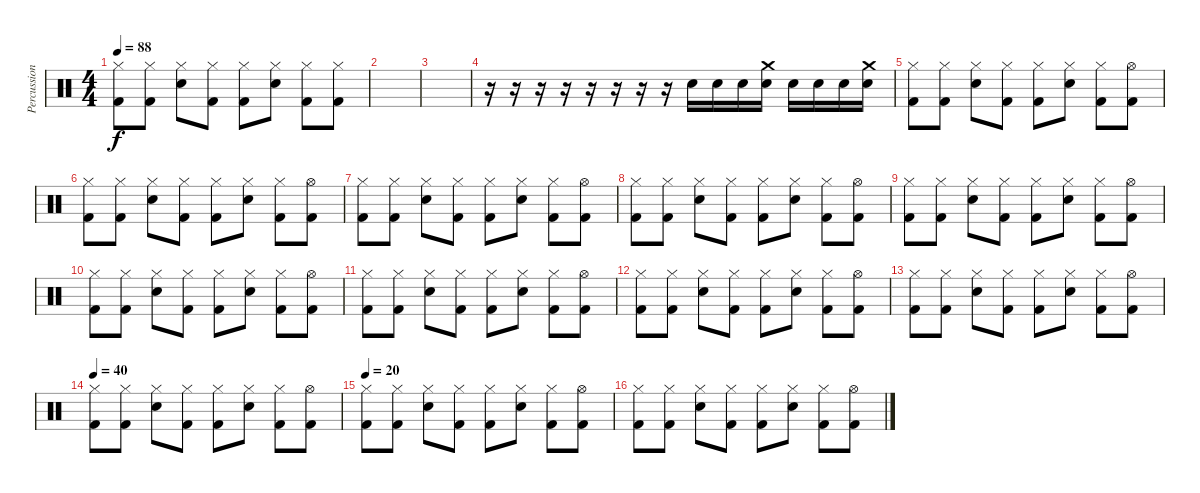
\track ("Percussion" "Percussion") {instrument percussion}
\staff {score}
\articulation defaults
\ts (4 4)
\tempo 88
\clef neutral
\ks c
("Hi-Hat (closed)" "Kick (hit) 2").8{dy f} ("Hi-Hat (closed)" "Kick (hit) 2").8 ("Hi-Hat (closed)" "Snare (hit) 2").8 ("Hi-Hat (closed)" "Kick (hit) 2").8 ("Hi-Hat (closed)" "Kick (hit) 2").8 ("Hi-Hat (closed)" "Snare (hit) 2").8 ("Hi-Hat (closed)" "Kick (hit) 2").8 ("Hi-Hat (closed)" "Kick (hit) 2").8 |
|
|
r.16 r.16 r.16 r.16 r.16 r.16 r.16 r.16 "Snare (hit) 2".16 "Snare (hit) 2".16 "Snare (hit) 2".16 ("Snare (hit) 2" "Crash medium (hit)").16 "Snare (hit) 2".16 "Snare (hit) 2".16 "Snare (hit) 2".16 ("Snare (hit) 2" "Crash medium (hit)").16 |
("Hi-Hat (closed)" "Kick (hit) 2").8 ("Hi-Hat (closed)" "Kick (hit) 2").8 ("Hi-Hat (closed)" "Snare (hit) 2").8 ("Hi-Hat (closed)" "Kick (hit) 2").8 ("Hi-Hat (closed)" "Kick (hit) 2").8 ("Hi-Hat (closed)" "Snare (hit) 2").8 ("Hi-Hat (closed)" "Kick (hit) 2").8 ("Hi-Hat (open)" "Kick (hit) 2").8 |
("Hi-Hat (closed)" "Kick (hit) 2").8 ("Hi-Hat (closed)" "Kick (hit) 2").8 ("Hi-Hat (closed)" "Snare (hit) 2").8 ("Hi-Hat (closed)" "Kick (hit) 2").8 ("Hi-Hat (closed)" "Kick (hit) 2").8 ("Hi-Hat (closed)" "Snare (hit) 2").8 ("Hi-Hat (closed)" "Kick (hit) 2").8 ("Hi-Hat (open)" "Kick (hit) 2").8 |
("Hi-Hat (closed)" "Kick (hit) 2").8 ("Hi-Hat (closed)" "Kick (hit) 2").8 ("Hi-Hat (closed)" "Snare (hit) 2").8 ("Hi-Hat (closed)" "Kick (hit) 2").8 ("Hi-Hat (closed)" "Kick (hit) 2").8 ("Hi-Hat (closed)" "Snare (hit) 2").8 ("Hi-Hat (closed)" "Kick (hit) 2").8 ("Hi-Hat (open)" "Kick (hit) 2").8 |
("Hi-Hat (closed)" "Kick (hit) 2").8 ("Hi-Hat (closed)" "Kick (hit) 2").8 ("Hi-Hat (closed)" "Snare (hit) 2").8 ("Hi-Hat (closed)" "Kick (hit) 2").8 ("Hi-Hat (closed)" "Kick (hit) 2").8 ("Hi-Hat (closed)" "Snare (hit) 2").8 ("Hi-Hat (closed)" "Kick (hit) 2").8 ("Hi-Hat (open)" "Kick (hit) 2").8 |
("Hi-Hat (closed)" "Kick (hit) 2").8 ("Hi-Hat (closed)" "Kick (hit) 2").8 ("Hi-Hat (closed)" "Snare (hit) 2").8 ("Hi-Hat (closed)" "Kick (hit) 2").8 ("Hi-Hat (closed)" "Kick (hit) 2").8 ("Hi-Hat (closed)" "Snare (hit) 2").8 ("Hi-Hat (closed)" "Kick (hit) 2").8 ("Hi-Hat (open)" "Kick (hit) 2").8 |
("Hi-Hat (closed)" "Kick (hit) 2").8 ("Hi-Hat (closed)" "Kick (hit) 2").8 ("Hi-Hat (closed)" "Snare (hit) 2").8 ("Hi-Hat (closed)" "Kick (hit) 2").8 ("Hi-Hat (closed)" "Kick (hit) 2").8 ("Hi-Hat (closed)" "Snare (hit) 2").8 ("Hi-Hat (closed)" "Kick (hit) 2").8 ("Hi-Hat (open)" "Kick (hit) 2").8 |
("Hi-Hat (closed)" "Kick (hit) 2").8 ("Hi-Hat (closed)" "Kick (hit) 2").8 ("Hi-Hat (closed)" "Snare (hit) 2").8 ("Hi-Hat (closed)" "Kick (hit) 2").8 ("Hi-Hat (closed)" "Kick (hit) 2").8 ("Hi-Hat (closed)" "Snare (hit) 2").8 ("Hi-Hat (closed)" "Kick (hit) 2").8 ("Hi-Hat (open)" "Kick (hit) 2").8 |
("Hi-Hat (closed)" "Kick (hit) 2").8 ("Hi-Hat (closed)" "Kick (hit) 2").8 ("Hi-Hat (closed)" "Snare (hit) 2").8 ("Hi-Hat (closed)" "Kick (hit) 2").8 ("Hi-Hat (closed)" "Kick (hit) 2").8 ("Hi-Hat (closed)" "Snare (hit) 2").8 ("Hi-Hat (closed)" "Kick (hit) 2").8 ("Hi-Hat (open)" "Kick (hit) 2").8 |
("Hi-Hat (closed)" "Kick (hit) 2").8 ("Hi-Hat (closed)" "Kick (hit) 2").8 ("Hi-Hat (closed)" "Snare (hit) 2").8 ("Hi-Hat (closed)" "Kick (hit) 2").8 ("Hi-Hat (closed)" "Kick (hit) 2").8 ("Hi-Hat (closed)" "Snare (hit) 2").8 ("Hi-Hat (closed)" "Kick (hit) 2").8 ("Hi-Hat (open)" "Kick (hit) 2").8 |
\tempo 40
("Hi-Hat (closed)" "Kick (hit) 2").8 ("Hi-Hat (closed)" "Kick (hit) 2").8 ("Hi-Hat (closed)" "Snare (hit) 2").8 ("Hi-Hat (closed)" "Kick (hit) 2").8 ("Hi-Hat (closed)" "Kick (hit) 2").8 ("Hi-Hat (closed)" "Snare (hit) 2").8 ("Hi-Hat (closed)" "Kick (hit) 2").8 ("Hi-Hat (open)" "Kick (hit) 2").8 |
\tempo 20
("Hi-Hat (closed)" "Kick (hit) 2").8 ("Hi-Hat (closed)" "Kick (hit) 2").8 ("Hi-Hat (closed)" "Snare (hit) 2").8 ("Hi-Hat (closed)" "Kick (hit) 2").8 ("Hi-Hat (closed)" "Kick (hit) 2").8 ("Hi-Hat (closed)" "Snare (hit) 2").8 ("Hi-Hat (closed)" "Kick (hit) 2").8 ("Hi-Hat (open)" "Kick (hit) 2").8 |
("Hi-Hat (closed)" "Kick (hit) 2").8 ("Hi-Hat (closed)" "Kick (hit) 2").8 ("Hi-Hat (closed)" "Snare (hit) 2").8 ("Hi-Hat (closed)" "Kick (hit) 2").8 ("Hi-Hat (closed)" "Kick (hit) 2").8 ("Hi-Hat (closed)" "Snare (hit) 2").8 ("Hi-Hat (closed)" "Kick (hit) 2").8 ("Hi-Hat (open)" "Kick (hit) 2").8
